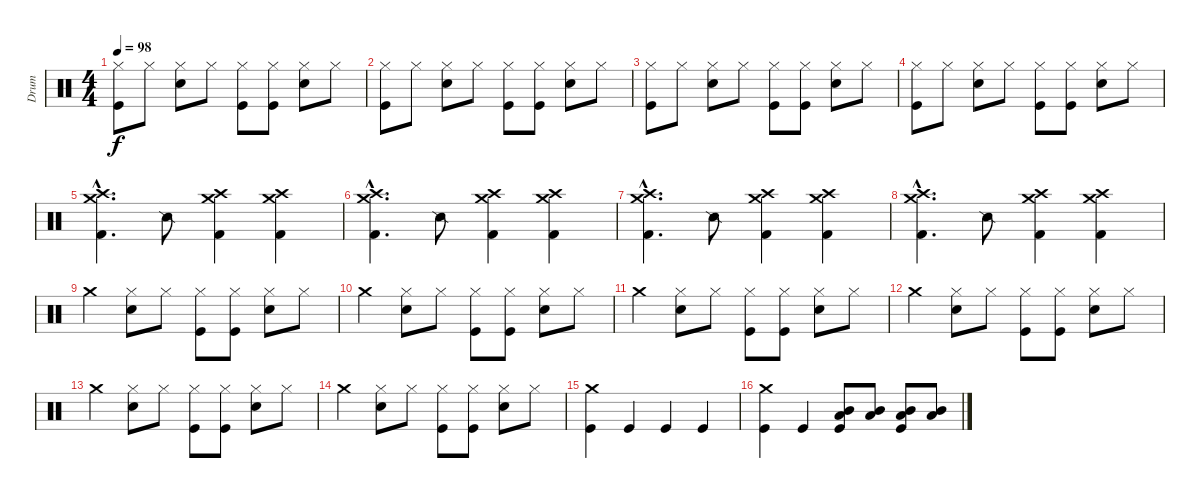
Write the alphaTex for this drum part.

\track ("Drum" "Drum") {instrument percussion}
\staff {score}
\articulation defaults
\ts (4 4)
\tempo 98
\clef neutral
\ks c
("Hi-Hat (closed)" "Kick (hit)").8{dy f} "Hi-Hat (closed)".8 ("Hi-Hat (closed)" "Snare (hit) 2").8 "Hi-Hat (closed)".8 ("Hi-Hat (closed)" "Kick (hit)").8 ("Hi-Hat (closed)" "Kick (hit)").8 ("Hi-Hat (closed)" "Snare (hit) 2").8 "Hi-Hat (closed)".8 |
("Hi-Hat (closed)" "Kick (hit)").8 "Hi-Hat (closed)".8 ("Hi-Hat (closed)" "Snare (hit) 2").8 "Hi-Hat (closed)".8 ("Hi-Hat (closed)" "Kick (hit)").8 ("Hi-Hat (closed)" "Kick (hit)").8 ("Hi-Hat (closed)" "Snare (hit) 2").8 "Hi-Hat (closed)".8 |
("Hi-Hat (closed)" "Kick (hit)").8 "Hi-Hat (closed)".8 ("Hi-Hat (closed)" "Snare (hit) 2").8 "Hi-Hat (closed)".8 ("Hi-Hat (closed)" "Kick (hit)").8 ("Hi-Hat (closed)" "Kick (hit)").8 ("Hi-Hat (closed)" "Snare (hit) 2").8 "Hi-Hat (closed)".8 |
("Hi-Hat (closed)" "Kick (hit)").8 "Hi-Hat (closed)".8 ("Hi-Hat (closed)" "Snare (hit) 2").8 "Hi-Hat (closed)".8 ("Hi-Hat (closed)" "Kick (hit)").8 ("Hi-Hat (closed)" "Kick (hit)").8 ("Hi-Hat (closed)" "Snare (hit) 2").8 "Hi-Hat (closed)".8 |
("Crash medium (hit)"{hac} "Kick (hit) 2"{hac} "Crash high (hit)"{hac}).4{d} "Snare (side stick) 2".8 ("Crash medium (hit)" "Kick (hit) 2" "Crash high (hit)").4 ("Crash medium (hit)" "Kick (hit) 2" "Crash high (hit)").4 |
("Crash medium (hit)"{hac} "Kick (hit) 2"{hac} "Crash high (hit)"{hac}).4{d} "Snare (side stick) 2".8 ("Crash medium (hit)" "Kick (hit) 2" "Crash high (hit)").4 ("Crash medium (hit)" "Kick (hit) 2" "Crash high (hit)").4 |
("Crash medium (hit)"{hac} "Kick (hit) 2"{hac} "Crash high (hit)"{hac}).4{d} "Snare (side stick) 2".8 ("Crash medium (hit)" "Kick (hit) 2" "Crash high (hit)").4 ("Crash medium (hit)" "Kick (hit) 2" "Crash high (hit)").4 |
("Crash medium (hit)"{hac} "Kick (hit) 2"{hac} "Crash high (hit)"{hac}).4{d} "Snare (side stick) 2".8 ("Crash medium (hit)" "Kick (hit) 2" "Crash high (hit)").4 ("Crash medium (hit)" "Kick (hit) 2" "Crash high (hit)").4 |
"Crash medium (hit)".4 ("Hi-Hat (closed)" "Electric Snare (hit)").8 "Hi-Hat (closed)".8 ("Hi-Hat (closed)" "Kick (hit)").8 ("Hi-Hat (closed)" "Kick (hit)").8 ("Hi-Hat (closed)" "Electric Snare (hit)").8 "Hi-Hat (closed)".8 |
"Crash medium (hit)".4 ("Hi-Hat (closed)" "Electric Snare (hit)").8 "Hi-Hat (closed)".8 ("Hi-Hat (closed)" "Kick (hit)").8 ("Hi-Hat (closed)" "Kick (hit)").8 ("Hi-Hat (closed)" "Electric Snare (hit)").8 "Hi-Hat (closed)".8 |
"Crash medium (hit)".4 ("Hi-Hat (closed)" "Electric Snare (hit)").8 "Hi-Hat (closed)".8 ("Hi-Hat (closed)" "Kick (hit)").8 ("Hi-Hat (closed)" "Kick (hit)").8 ("Hi-Hat (closed)" "Electric Snare (hit)").8 "Hi-Hat (closed)".8 |
"Crash medium (hit)".4 ("Hi-Hat (closed)" "Electric Snare (hit)").8 "Hi-Hat (closed)".8 ("Hi-Hat (closed)" "Kick (hit)").8 ("Hi-Hat (closed)" "Kick (hit)").8 ("Hi-Hat (closed)" "Electric Snare (hit)").8 "Hi-Hat (closed)".8 |
"Crash medium (hit)".4 ("Hi-Hat (closed)" "Electric Snare (hit)").8 "Hi-Hat (closed)".8 ("Hi-Hat (closed)" "Kick (hit)").8 ("Hi-Hat (closed)" "Kick (hit)").8 ("Hi-Hat (closed)" "Electric Snare (hit)").8 "Hi-Hat (closed)".8 |
"Crash medium (hit)".4 ("Hi-Hat (closed)" "Electric Snare (hit)").8 "Hi-Hat (closed)".8 ("Hi-Hat (closed)" "Kick (hit)").8 ("Hi-Hat (closed)" "Kick (hit)").8 ("Hi-Hat (closed)" "Electric Snare (hit)").8 "Hi-Hat (closed)".8 |
("Crash medium (hit)" "Kick (hit)").4 "Kick (hit)".4 "Kick (hit)".4 "Kick (hit)".4 |
("Crash medium (hit)" "Kick (hit)").4 "Kick (hit)".4 ("Kick (hit)" "Low Tom (hit)" "Mid Tom (hit)").8 ("Low Tom (hit)" "Mid Tom (hit)").8 ("Kick (hit)" "Low Tom (hit)" "Mid Tom (hit)").8 ("Low Tom (hit)" "Mid Tom (hit)").8
